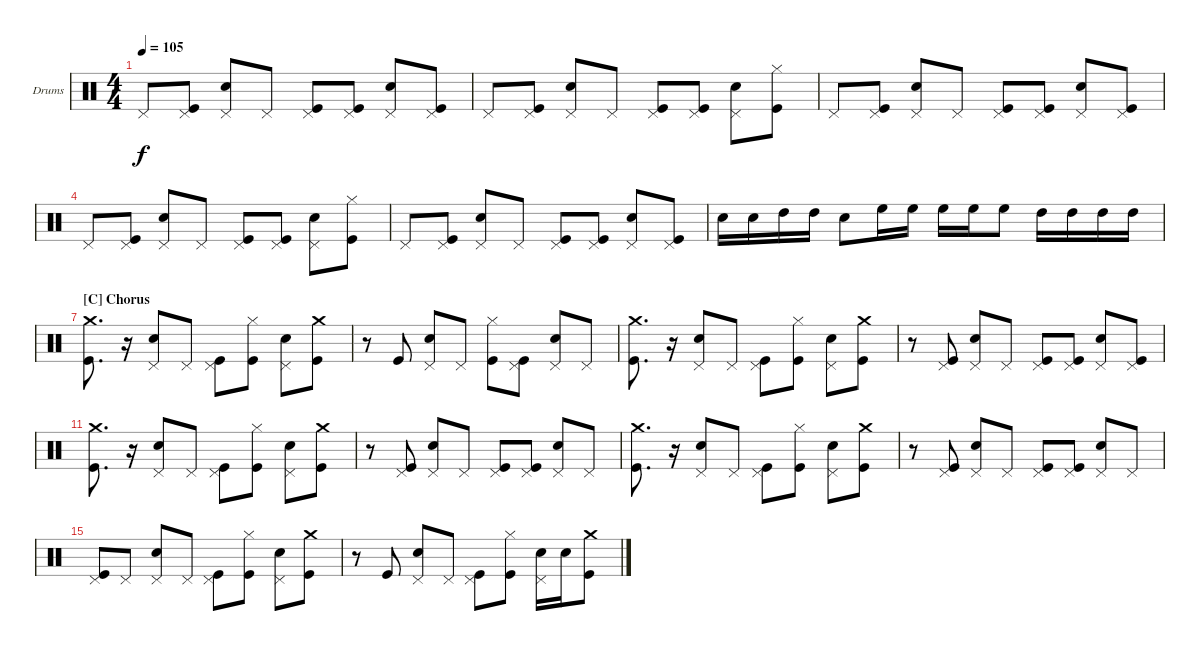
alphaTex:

\bracketExtendMode nobrackets
\firstSystemTrackNameOrientation horizontal
\otherSystemsTrackNameOrientation horizontal
\defaultBarNumberDisplay FirstOfSystem
\track ("Drumkit" "Drums") {instrument percussion}
\staff {score}
\articulation defaults
\ts (4 4)
\scale
0.256131
\tempo 105
\accidentals auto
\clef neutral
\ottava regular
\simile none
\ks c "Pedal Hi-Hat (hit)".8{dy f}
("Kick (hit)" "Pedal Hi-Hat (hit)").8 ("Snare (hit) 2" "Pedal Hi-Hat (hit)").8 "Pedal Hi-Hat (hit)".8 ("Kick (hit)" "Pedal Hi-Hat (hit)").8 ("Kick (hit)" "Pedal Hi-Hat (hit)").8 ("Snare (hit) 2" "Pedal Hi-Hat (hit)").8 ("Kick (hit)" "Pedal Hi-Hat (hit)").8 |
\scale
0.306625 "Pedal Hi-Hat (hit)".8 ("Kick (hit)" "Pedal Hi-Hat (hit)").8 ("Snare (hit) 2" "Pedal Hi-Hat (hit)").8 "Pedal Hi-Hat (hit)".8 ("Kick (hit)" "Pedal Hi-Hat (hit)").8 ("Kick (hit)" "Pedal Hi-Hat (hit)").8 ("Snare (hit) 2" "Pedal Hi-Hat (hit)").8 ("Kick (hit)" "Hi-Hat (closed)").8 |
\scale
0.166667 "Pedal Hi-Hat (hit)".8 ("Kick (hit)" "Pedal Hi-Hat (hit)").8 ("Snare (hit) 2" "Pedal Hi-Hat (hit)").8 "Pedal Hi-Hat (hit)".8 ("Kick (hit)" "Pedal Hi-Hat (hit)").8 ("Kick (hit)" "Pedal Hi-Hat (hit)").8 ("Snare (hit) 2" "Pedal Hi-Hat (hit)").8 ("Kick (hit)" "Pedal Hi-Hat (hit)").8 |
\scale
0.329167 "Pedal Hi-Hat (hit)".8 ("Kick (hit)" "Pedal Hi-Hat (hit)").8 ("Snare (hit) 2" "Pedal Hi-Hat (hit)").8 "Pedal Hi-Hat (hit)".8 ("Kick (hit)" "Pedal Hi-Hat (hit)").8 ("Kick (hit)" "Pedal Hi-Hat (hit)").8 ("Snare (hit) 2" "Pedal Hi-Hat (hit)").8 ("Kick (hit)" "Hi-Hat (closed)").8 |
\scale
0.236961 "Pedal Hi-Hat (hit)".8 ("Kick (hit)" "Pedal Hi-Hat (hit)").8 ("Snare (hit) 2" "Pedal Hi-Hat (hit)").8 "Pedal Hi-Hat (hit)".8 ("Kick (hit)" "Pedal Hi-Hat (hit)").8 ("Kick (hit)" "Pedal Hi-Hat (hit)").8 ("Snare (hit) 2" "Pedal Hi-Hat (hit)").8 ("Kick (hit)" "Pedal Hi-Hat (hit)").8 |
\scale
0.268927 "Snare (hit) 2".16 "Snare (hit) 2".16 "High Tom (hit)".16 "High Tom (hit)".16 "Snare (hit) 2".8 "High Floor Tom (hit)".16 "High Floor Tom (hit)".16 "High Floor Tom (hit)".16 "High Floor Tom (hit)".16 "High Floor Tom (hit)".8 "High Tom (hit)".16 "High Tom (hit)".16 "High Tom (hit)".16 "High Tom (hit)".16 |
\section ("C" "Chorus")
("Kick (hit)" "Crash medium (hit)").8{d} r.16 ("Snare (hit) 2" "Pedal Hi-Hat (hit)").8 "Pedal Hi-Hat (hit)".8 ("Kick (hit)" "Pedal Hi-Hat (hit)").8 ("Kick (hit)" "Hi-Hat (closed)").8 ("Snare (hit) 2" "Pedal Hi-Hat (hit)").8 ("Kick (hit)" "Crash medium (hit)").8 |
r.8 "Kick (hit)".8 ("Snare (hit) 2" "Pedal Hi-Hat (hit)").8 "Pedal Hi-Hat (hit)".8 ("Kick (hit)" "Hi-Hat (closed)").8 ("Kick (hit)" "Pedal Hi-Hat (hit)").8 ("Snare (hit) 2" "Pedal Hi-Hat (hit)").8 "Pedal Hi-Hat (hit)".8 |
("Kick (hit)" "Crash medium (hit)").8{d} r.16 ("Snare (hit) 2" "Pedal Hi-Hat (hit)").8 "Pedal Hi-Hat (hit)".8 ("Kick (hit)" "Pedal Hi-Hat (hit)").8 ("Kick (hit)" "Hi-Hat (closed)").8 ("Snare (hit) 2" "Pedal Hi-Hat (hit)").8 ("Kick (hit)" "Crash medium (hit)").8 |
r.8 ("Kick (hit)" "Pedal Hi-Hat (hit)").8 ("Snare (hit) 2" "Pedal Hi-Hat (hit)").8 "Pedal Hi-Hat (hit)".8 ("Kick (hit)" "Pedal Hi-Hat (hit)").8 ("Kick (hit)" "Pedal Hi-Hat (hit)").8 ("Snare (hit) 2" "Pedal Hi-Hat (hit)").8 ("Kick (hit)" "Pedal Hi-Hat (hit)").8 |
("Kick (hit)" "Crash medium (hit)").8{d} r.16 ("Snare (hit) 2" "Pedal Hi-Hat (hit)").8 "Pedal Hi-Hat (hit)".8 ("Kick (hit)" "Pedal Hi-Hat (hit)").8 ("Kick (hit)" "Hi-Hat (closed)").8 ("Snare (hit) 2" "Pedal Hi-Hat (hit)").8 ("Kick (hit)" "Crash medium (hit)").8 |
r.8 ("Kick (hit)" "Pedal Hi-Hat (hit)").8 ("Snare (hit) 2" "Pedal Hi-Hat (hit)").8 "Pedal Hi-Hat (hit)".8 ("Kick (hit)" "Pedal Hi-Hat (hit)").8 ("Kick (hit)" "Pedal Hi-Hat (hit)").8 ("Snare (hit) 2" "Pedal Hi-Hat (hit)").8 "Pedal Hi-Hat (hit)".8 |
("Kick (hit)" "Crash medium (hit)").8{d} r.16 ("Snare (hit) 2" "Pedal Hi-Hat (hit)").8 "Pedal Hi-Hat (hit)".8 ("Kick (hit)" "Pedal Hi-Hat (hit)").8 ("Kick (hit)" "Hi-Hat (closed)").8 ("Snare (hit) 2" "Pedal Hi-Hat (hit)").8 ("Kick (hit)" "Crash medium (hit)").8 |
r.8 ("Kick (hit)" "Pedal Hi-Hat (hit)").8 ("Snare (hit) 2" "Pedal Hi-Hat (hit)").8 "Pedal Hi-Hat (hit)".8 ("Kick (hit)" "Pedal Hi-Hat (hit)").8 ("Kick (hit)" "Pedal Hi-Hat (hit)").8 ("Snare (hit) 2" "Pedal Hi-Hat (hit)").8 "Pedal Hi-Hat (hit)".8 |
("Kick (hit)" "Pedal Hi-Hat (hit)").8 "Pedal Hi-Hat (hit)".8 ("Snare (hit) 2" "Pedal Hi-Hat (hit)").8 "Pedal Hi-Hat (hit)".8 ("Kick (hit)" "Pedal Hi-Hat (hit)").8 ("Kick (hit)" "Hi-Hat (closed)").8 ("Snare (hit) 2" "Pedal Hi-Hat (hit)").8 ("Kick (hit)" "Crash medium (hit)").8 |
r.8 "Kick (hit)".8 ("Snare (hit) 2" "Pedal Hi-Hat (hit)").8 "Pedal Hi-Hat (hit)".8 ("Kick (hit)" "Pedal Hi-Hat (hit)").8 ("Kick (hit)" "Hi-Hat (closed)").8 ("Snare (hit) 2" "Pedal Hi-Hat (hit)").16 "Snare (hit) 2".16 ("Kick (hit)" "Crash medium (hit)").8
